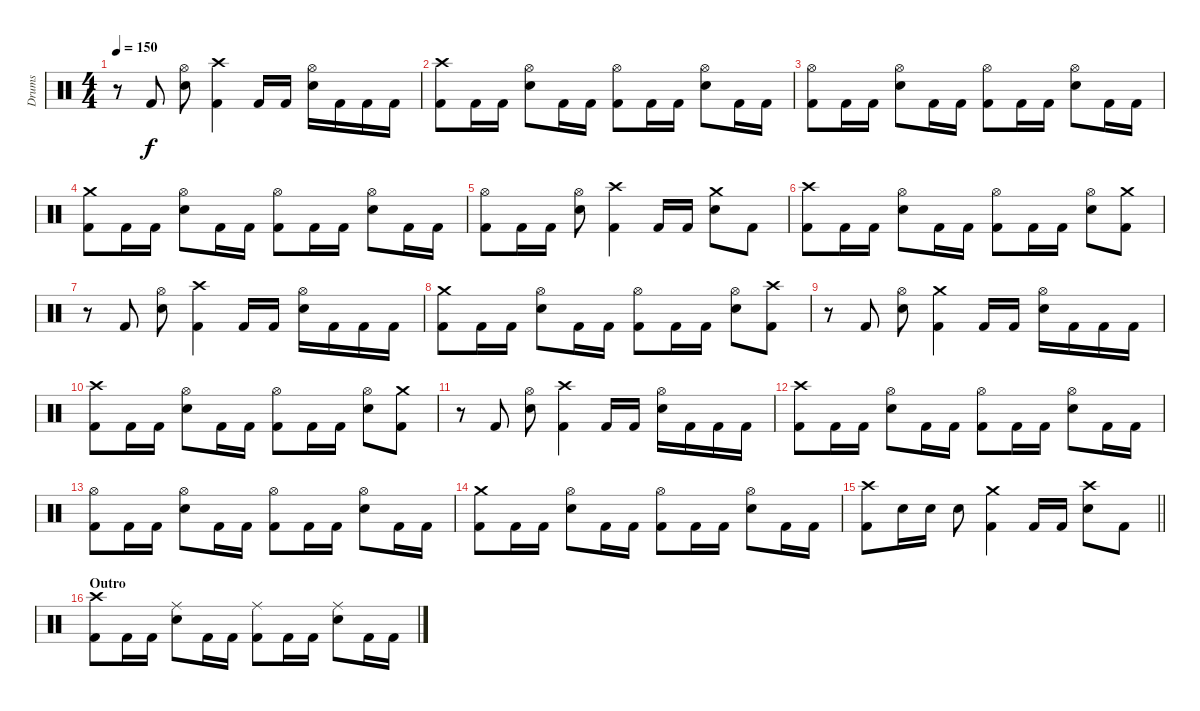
\track ("Drums" "Drums") {instrument percussion}
\staff {score}
\articulation defaults
\ts (4 4)
\tempo 150
\clef neutral
\ks c
r.8{dy f} "Kick (hit) 2".8 ("Hi-Hat (open)" "Snare (hit) 2").8 ("Crash high (hit)" "Kick (hit) 2").4 "Kick (hit) 2".16 "Kick (hit) 2".16 ("Hi-Hat (open)" "Snare (hit) 2").16 "Kick (hit) 2".16 "Kick (hit) 2".16 "Kick (hit) 2".16 |
("Crash high (hit)" "Kick (hit) 2").8 "Kick (hit) 2".16 "Kick (hit) 2".16 ("Hi-Hat (open)" "Snare (hit) 2").8 "Kick (hit) 2".16 "Kick (hit) 2".16 ("Hi-Hat (open)" "Kick (hit) 2").8 "Kick (hit) 2".16 "Kick (hit) 2".16 ("Hi-Hat (open)" "Snare (hit) 2").8 "Kick (hit) 2".16 "Kick (hit) 2".16 |
("Hi-Hat (open)" "Kick (hit) 2").8 "Kick (hit) 2".16 "Kick (hit) 2".16 ("Hi-Hat (open)" "Snare (hit) 2").8 "Kick (hit) 2".16 "Kick (hit) 2".16 ("Hi-Hat (open)" "Kick (hit) 2").8 "Kick (hit) 2".16 "Kick (hit) 2".16 ("Hi-Hat (open)" "Snare (hit) 2").8 "Kick (hit) 2".16 "Kick (hit) 2".16 |
("Crash medium (hit)" "Kick (hit) 2").8 "Kick (hit) 2".16 "Kick (hit) 2".16 ("Hi-Hat (open)" "Snare (hit) 2").8 "Kick (hit) 2".16 "Kick (hit) 2".16 ("Hi-Hat (open)" "Kick (hit) 2").8 "Kick (hit) 2".16 "Kick (hit) 2".16 ("Hi-Hat (open)" "Snare (hit) 2").8 "Kick (hit) 2".16 "Kick (hit) 2".16 |
("Hi-Hat (open)" "Kick (hit) 2").8 "Kick (hit) 2".16 "Kick (hit) 2".16 ("Hi-Hat (open)" "Snare (hit) 2").8 ("Crash high (hit)" "Kick (hit) 2").4 "Kick (hit) 2".16 "Kick (hit) 2".16 ("Crash medium (hit)" "Snare (hit) 2").8 "Kick (hit) 2".8 |
("Crash high (hit)" "Kick (hit) 2").8 "Kick (hit) 2".16 "Kick (hit) 2".16 ("Hi-Hat (open)" "Snare (hit) 2").8 "Kick (hit) 2".16 "Kick (hit) 2".16 ("Hi-Hat (open)" "Kick (hit) 2").8 "Kick (hit) 2".16 "Kick (hit) 2".16 ("Hi-Hat (open)" "Snare (hit) 2").8 ("Crash medium (hit)" "Kick (hit) 2").8 |
r.8 "Kick (hit) 2".8 ("Hi-Hat (open)" "Snare (hit) 2").8 ("Crash high (hit)" "Kick (hit) 2").4 "Kick (hit) 2".16 "Kick (hit) 2".16 ("Hi-Hat (open)" "Snare (hit) 2").16 "Kick (hit) 2".16 "Kick (hit) 2".16 "Kick (hit) 2".16 |
("Crash medium (hit)" "Kick (hit) 2").8 "Kick (hit) 2".16 "Kick (hit) 2".16 ("Hi-Hat (open)" "Snare (hit) 2").8 "Kick (hit) 2".16 "Kick (hit) 2".16 ("Hi-Hat (open)" "Kick (hit) 2").8 "Kick (hit) 2".16 "Kick (hit) 2".16 ("Hi-Hat (open)" "Snare (hit) 2").8 ("Crash high (hit)" "Kick (hit) 2").8 |
r.8 "Kick (hit) 2".8 ("Hi-Hat (open)" "Snare (hit) 2").8 ("Crash medium (hit)" "Kick (hit) 2").4 "Kick (hit) 2".16 "Kick (hit) 2".16 ("Hi-Hat (open)" "Snare (hit) 2").16 "Kick (hit) 2".16 "Kick (hit) 2".16 "Kick (hit) 2".16 |
("Crash high (hit)" "Kick (hit) 2").8 "Kick (hit) 2".16 "Kick (hit) 2".16 ("Hi-Hat (open)" "Snare (hit) 2").8 "Kick (hit) 2".16 "Kick (hit) 2".16 ("Hi-Hat (open)" "Kick (hit) 2").8 "Kick (hit) 2".16 "Kick (hit) 2".16 ("Hi-Hat (open)" "Snare (hit) 2").8 ("Crash medium (hit)" "Kick (hit) 2").8 |
r.8 "Kick (hit) 2".8 ("Hi-Hat (open)" "Snare (hit) 2").8 ("Crash high (hit)" "Kick (hit) 2").4 "Kick (hit) 2".16 "Kick (hit) 2".16 ("Hi-Hat (open)" "Snare (hit) 2").16 "Kick (hit) 2".16 "Kick (hit) 2".16 "Kick (hit) 2".16 |
("Crash high (hit)" "Kick (hit) 2").8 "Kick (hit) 2".16 "Kick (hit) 2".16 ("Hi-Hat (open)" "Snare (hit) 2").8 "Kick (hit) 2".16 "Kick (hit) 2".16 ("Hi-Hat (open)" "Kick (hit) 2").8 "Kick (hit) 2".16 "Kick (hit) 2".16 ("Hi-Hat (open)" "Snare (hit) 2").8 "Kick (hit) 2".16 "Kick (hit) 2".16 |
("Hi-Hat (open)" "Kick (hit) 2").8 "Kick (hit) 2".16 "Kick (hit) 2".16 ("Hi-Hat (open)" "Snare (hit) 2").8 "Kick (hit) 2".16 "Kick (hit) 2".16 ("Hi-Hat (open)" "Kick (hit) 2").8 "Kick (hit) 2".16 "Kick (hit) 2".16 ("Hi-Hat (open)" "Snare (hit) 2").8 "Kick (hit) 2".16 "Kick (hit) 2".16 |
("Crash medium (hit)" "Kick (hit) 2").8 "Kick (hit) 2".16 "Kick (hit) 2".16 ("Hi-Hat (open)" "Snare (hit) 2").8 "Kick (hit) 2".16 "Kick (hit) 2".16 ("Hi-Hat (open)" "Kick (hit) 2").8 "Kick (hit) 2".16 "Kick (hit) 2".16 ("Hi-Hat (open)" "Snare (hit) 2").8 "Kick (hit) 2".16 "Kick (hit) 2".16 |
\barLineRight lightlight
("Crash high (hit)" "Kick (hit) 2").8 "Snare (hit) 2".16 "Snare (hit) 2".16 "Snare (hit) 2".8 ("Crash medium (hit)" "Kick (hit) 2").4 "Kick (hit) 2".16 "Kick (hit) 2".16 ("Crash high (hit)" "Snare (hit) 2").8 "Kick (hit) 2".8 |
\section ("" "Outro")
("Crash high (hit)" "Kick (hit) 2").8 "Kick (hit) 2".16 "Kick (hit) 2".16 ("Ride (middle)" "Snare (hit) 2").8 "Kick (hit) 2".16 "Kick (hit) 2".16 ("Ride (middle)" "Kick (hit) 2").8 "Kick (hit) 2".16 "Kick (hit) 2".16 ("Ride (middle)" "Snare (hit) 2").8 "Kick (hit) 2".16 "Kick (hit) 2".16
